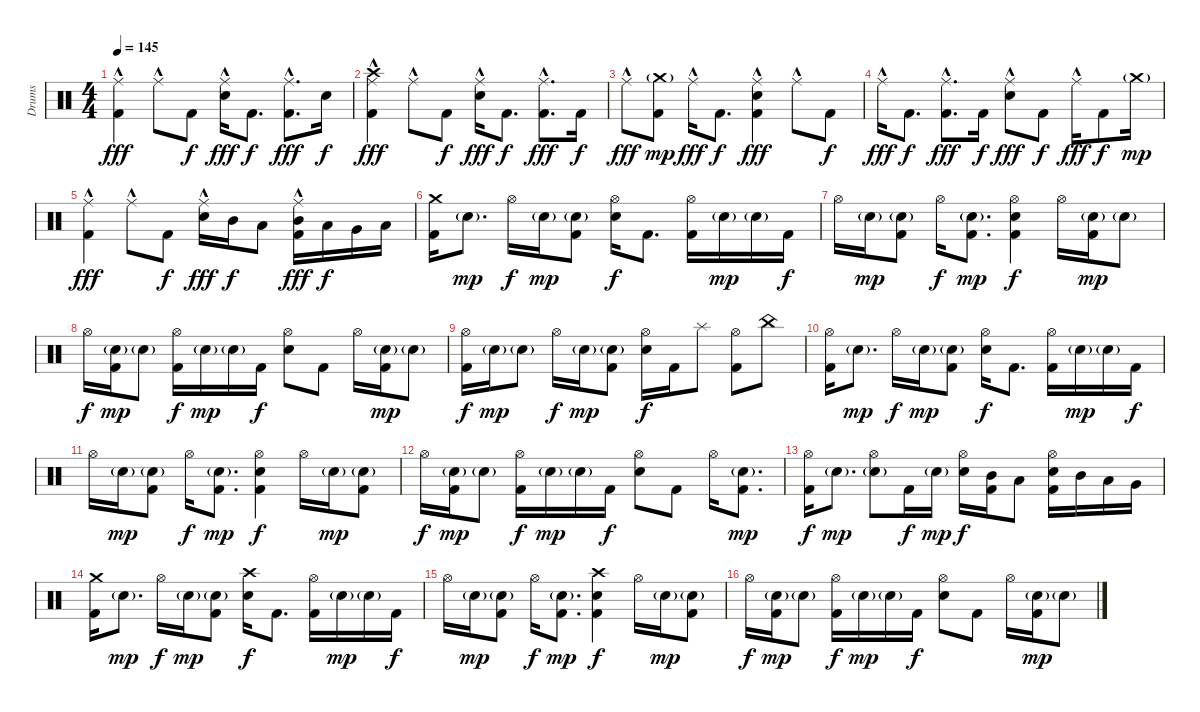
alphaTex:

\track ("Drums" "Drums") {instrument percussion}
\staff {score}
\articulation defaults
\ts (4 4)
\tempo 145
\clef neutral
\ks c
("Ride (middle)"{hac} "Kick (hit) 2").4{dy fff} "Ride (middle)"{hac}.8 "Kick (hit) 2".8{dy f} ("Ride (middle)"{hac} "Snare (hit) 2").16{dy fff} "Kick (hit) 2".8{d dy f} ("Ride (middle)"{hac} "Kick (hit) 2").8{d dy fff} "Snare (hit) 2".16{dy f} |
("Ride (middle)"{hac} "Crash high (hit)" "Kick (hit) 2").4{dy fff} "Ride (middle)"{hac}.8 "Kick (hit) 2".8{dy f} ("Ride (middle)"{hac} "Snare (hit) 2").16{dy fff} "Kick (hit) 2".8{d dy f} ("Ride (middle)"{hac} "Kick (hit) 2").8{d dy fff} "Kick (hit) 2".16{dy f} |
"Ride (middle)"{hac}.8{dy fff} ("Crash medium (hit)"{g} "Kick (hit) 2").8{dy mp} "Ride (middle)"{hac}.16{dy fff} "Kick (hit) 2".8{d dy f} ("Ride (middle)"{hac} "Snare (hit) 2" "Kick (hit) 2").4{dy fff} "Ride (middle)"{hac}.8 "Kick (hit) 2".8{dy f} |
"Ride (middle)"{hac}.16{dy fff} "Kick (hit) 2".8{d dy f} ("Ride (middle)"{hac} "Kick (hit) 2").8{d dy fff} "Kick (hit) 2".16{dy f} ("Ride (middle)"{hac} "Snare (hit) 2").8{dy fff} "Kick (hit) 2".8{dy f} "Ride (middle)"{hac}.16{dy fff} "Kick (hit) 2".8{dy f} "Crash medium (hit)"{g}.16{dy mp} |
("Ride (middle)"{hac} "Kick (hit) 2").4{dy fff} "Ride (middle)"{hac}.8 "Kick (hit) 2".8{dy f} ("Ride (middle)"{hac} "Snare (hit) 2").16{dy fff} "Mid Tom (hit)".16{dy f} "Low Tom (hit)".8 ("Ride (middle)"{hac} "Mid Tom (hit)" "Kick (hit) 2").16{dy fff} "Low Tom (hit)".16{dy f} "Very Low Tom (hit)".16 "Low Floor Tom (hit)".16 |
("Crash medium (hit)" "Kick (hit) 2").16 "Snare (hit) 2"{g}.8{d dy mp} "Hi-Hat (open)".16{dy f} "Snare (hit) 2"{g}.16{dy mp} ("Snare (hit) 2"{g} "Kick (hit) 2").8 ("Hi-Hat (open)" "Snare (hit) 2").16{dy f} "Kick (hit) 2".8{d} ("Hi-Hat (open)" "Kick (hit) 2").16 "Snare (hit) 2"{g}.16{dy mp} "Snare (hit) 2"{g}.16 "Kick (hit) 2".16{dy f} |
"Hi-Hat (open)".16 "Snare (hit) 2"{g}.16{dy mp} ("Snare (hit) 2"{g} "Kick (hit) 2").8 "Hi-Hat (open)".16{dy f} ("Snare (hit) 2"{g} "Kick (hit) 2").8{d dy mp} ("Hi-Hat (open)" "Snare (hit) 2" "Kick (hit) 2").4{dy f} "Hi-Hat (open)".16 ("Snare (hit) 2"{g} "Kick (hit) 2").16{dy mp} "Snare (hit) 2"{g}.8 |
"Hi-Hat (open)".16{dy f} ("Snare (hit) 2"{g} "Kick (hit) 2").16{dy mp} "Snare (hit) 2"{g}.8 ("Hi-Hat (open)" "Kick (hit) 2").16{dy f} "Snare (hit) 2"{g}.16{dy mp} "Snare (hit) 2"{g}.16 "Kick (hit) 2".16{dy f} ("Hi-Hat (open)" "Snare (hit) 2").8 "Kick (hit) 2".8 "Hi-Hat (open)".16 ("Snare (hit) 2"{g} "Kick (hit) 2").16{dy mp} "Snare (hit) 2"{g}.8 |
("Hi-Hat (open)" "Kick (hit) 2").16{dy f} "Snare (hit) 2"{g}.16{dy mp} "Snare (hit) 2"{g}.8 "Hi-Hat (open)".16{dy f} "Snare (hit) 2"{g}.16{dy mp} ("Snare (hit) 2"{g} "Kick (hit) 2").8 ("Hi-Hat (open)" "Snare (hit) 2").16{dy f} "Kick (hit) 2".16 "Splash (hit)".8 ("Hi-Hat (open)" "Kick (hit) 2").8 "China (hit)".8 |
("Hi-Hat (open)" "Kick (hit) 2").16 "Snare (hit) 2"{g}.8{d dy mp} "Hi-Hat (open)".16{dy f} "Snare (hit) 2"{g}.16{dy mp} ("Snare (hit) 2"{g} "Kick (hit) 2").8 ("Hi-Hat (open)" "Snare (hit) 2").16{dy f} "Kick (hit) 2".8{d} ("Hi-Hat (open)" "Kick (hit) 2").16 "Snare (hit) 2"{g}.16{dy mp} "Snare (hit) 2"{g}.16 "Kick (hit) 2".16{dy f} |
"Hi-Hat (open)".16 "Snare (hit) 2"{g}.16{dy mp} ("Snare (hit) 2"{g} "Kick (hit) 2").8 "Hi-Hat (open)".16{dy f} ("Snare (hit) 2"{g} "Kick (hit) 2").8{d dy mp} ("Hi-Hat (open)" "Snare (hit) 2" "Kick (hit) 2").4{dy f} "Hi-Hat (open)".16 "Snare (hit) 2"{g}.16{dy mp} ("Snare (hit) 2"{g} "Kick (hit) 2").8 |
"Hi-Hat (open)".16{dy f} ("Snare (hit) 2"{g} "Kick (hit) 2").16{dy mp} "Snare (hit) 2"{g}.8 ("Hi-Hat (open)" "Kick (hit) 2").16{dy f} "Snare (hit) 2"{g}.16{dy mp} "Snare (hit) 2"{g}.16 "Kick (hit) 2".16{dy f} ("Hi-Hat (open)" "Snare (hit) 2").8 "Kick (hit) 2".8 "Hi-Hat (open)".16 ("Snare (hit) 2"{g} "Kick (hit) 2").8{d dy mp} |
("Hi-Hat (open)" "Kick (hit) 2").16{dy f} "Snare (hit) 2"{g}.8{d dy mp} ("Hi-Hat (open)" "Snare (hit) 2"{g}).8 "Kick (hit) 2".16{dy f} "Snare (hit) 2"{g}.16{dy mp} ("Hi-Hat (open)" "Snare (hit) 2").16{dy f} ("Mid Tom (hit)" "Kick (hit) 2").16 "Low Tom (hit)".8 ("Hi-Hat (open)" "Snare (hit) 2" "Kick (hit) 2").16 "Mid Tom (hit)".16 "Low Tom (hit)".16 "Very Low Tom (hit)".16 |
("Crash medium (hit)" "Kick (hit) 2").16 "Snare (hit) 2"{g}.8{d dy mp} "Hi-Hat (open)".16{dy f} "Snare (hit) 2"{g}.16{dy mp} ("Snare (hit) 2"{g} "Kick (hit) 2").8 ("Crash high (hit)" "Snare (hit) 2").16{dy f} "Kick (hit) 2".8{d} ("Hi-Hat (open)" "Kick (hit) 2").16 "Snare (hit) 2"{g}.16{dy mp} "Snare (hit) 2"{g}.16 "Kick (hit) 2".16{dy f} |
"Hi-Hat (open)".16 "Snare (hit) 2"{g}.16{dy mp} ("Snare (hit) 2"{g} "Kick (hit) 2").8 "Hi-Hat (open)".16{dy f} ("Snare (hit) 2"{g} "Kick (hit) 2").8{d dy mp} ("Crash high (hit)" "Snare (hit) 2" "Kick (hit) 2").4{dy f} "Hi-Hat (open)".16 "Snare (hit) 2"{g}.16{dy mp} ("Snare (hit) 2"{g} "Kick (hit) 2").8 |
"Hi-Hat (open)".16{dy f} ("Snare (hit) 2"{g} "Kick (hit) 2").16{dy mp} "Snare (hit) 2"{g}.8 ("Hi-Hat (open)" "Kick (hit) 2").16{dy f} "Snare (hit) 2"{g}.16{dy mp} "Snare (hit) 2"{g}.16 "Kick (hit) 2".16{dy f} ("Hi-Hat (open)" "Snare (hit) 2").8 "Kick (hit) 2".8 "Hi-Hat (open)".16 ("Snare (hit) 2"{g} "Kick (hit) 2").16{dy mp} "Snare (hit) 2"{g}.8
